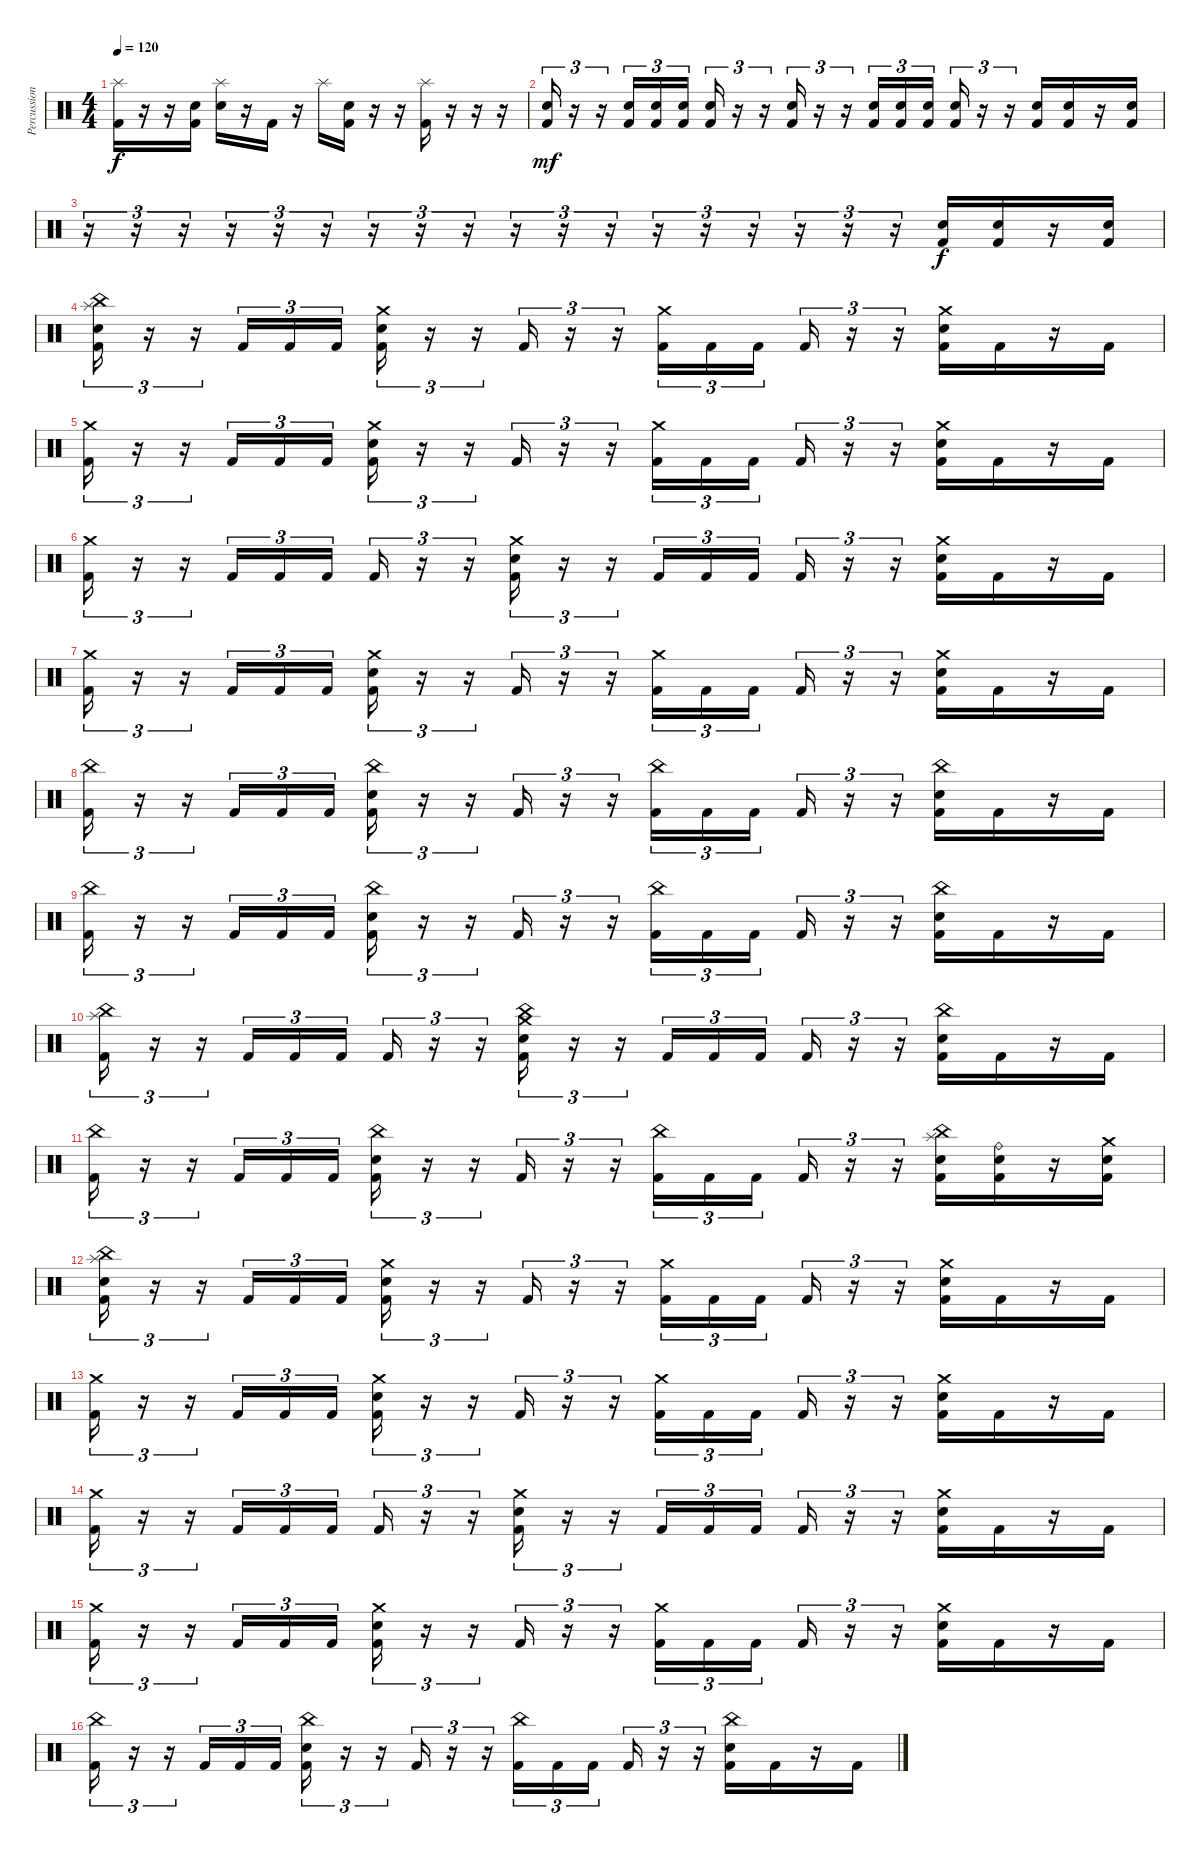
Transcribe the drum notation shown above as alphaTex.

\track ("Percussion" "Percussion") {instrument percussion}
\staff {score}
\articulation defaults
\ts (4 4)
\tempo 120
\clef neutral
\ks c
("Splash (hit)" "Kick (hit) 2").16{dy f} r.16 r.16 ("Electric Snare (hit)" "Kick (hit) 2").16 ("Splash (hit)" "Electric Snare (hit)").16 r.16 "Kick (hit) 2".16 r.16 "Splash (hit)".16 ("Electric Snare (hit)" "Kick (hit) 2").16 r.16 r.16 ("Splash (hit)" "Kick (hit) 2").16 r.16 r.16 r.16 |
("Snare (hit) 2" "Kick (hit) 2").16{tu (3 2) dy mf} r.16{tu (3 2)} r.16{tu (3 2)} ("Snare (hit) 2" "Kick (hit) 2").16{tu (3 2)} ("Snare (hit) 2" "Kick (hit) 2").16{tu (3 2)} ("Snare (hit) 2" "Kick (hit) 2").16{tu (3 2)} ("Snare (hit) 2" "Kick (hit) 2").16{tu (3 2)} r.16{tu (3 2)} r.16{tu (3 2)} ("Snare (hit) 2" "Kick (hit) 2").16{tu (3 2)} r.16{tu (3 2)} r.16{tu (3 2)} ("Snare (hit) 2" "Kick (hit) 2").16{tu (3 2)} ("Snare (hit) 2" "Kick (hit) 2").16{tu (3 2)} ("Snare (hit) 2" "Kick (hit) 2").16{tu (3 2)} ("Snare (hit) 2" "Kick (hit) 2").16{tu (3 2)} r.16{tu (3 2)} r.16{tu (3 2)} ("Snare (hit) 2" "Kick (hit) 2").16 ("Snare (hit) 2" "Kick (hit) 2").16 r.16 ("Snare (hit) 2" "Kick (hit) 2").16 |
r.16{tu (3 2)} r.16{tu (3 2)} r.16{tu (3 2)} r.16{tu (3 2)} r.16{tu (3 2)} r.16{tu (3 2)} r.16{tu (3 2)} r.16{tu (3 2)} r.16{tu (3 2)} r.16{tu (3 2)} r.16{tu (3 2)} r.16{tu (3 2)} r.16{tu (3 2)} r.16{tu (3 2)} r.16{tu (3 2)} r.16{tu (3 2)} r.16{tu (3 2)} r.16{tu (3 2)} ("Snare (hit) 2" "Kick (hit) 2").16{dy f} ("Snare (hit) 2" "Kick (hit) 2").16 r.16 ("Snare (hit) 2" "Kick (hit) 2").16 |
("China (hit)" "Splash (hit)" "Snare (hit) 2" "Kick (hit) 2").16{tu (3 2)} r.16{tu (3 2)} r.16{tu (3 2)} "Kick (hit) 2".16{tu (3 2)} "Kick (hit) 2".16{tu (3 2)} "Kick (hit) 2".16{tu (3 2)} ("Crash medium (hit)" "Electric Snare (hit)" "Kick (hit) 2").16{tu (3 2)} r.16{tu (3 2)} r.16{tu (3 2)} "Kick (hit) 2".16{tu (3 2)} r.16{tu (3 2)} r.16{tu (3 2)} ("Crash medium (hit)" "Kick (hit) 2").16{tu (3 2)} "Kick (hit) 2".16{tu (3 2)} "Kick (hit) 2".16{tu (3 2)} "Kick (hit) 2".16{tu (3 2)} r.16{tu (3 2)} r.16{tu (3 2)} ("Crash medium (hit)" "Electric Snare (hit)" "Kick (hit) 2").16 "Kick (hit) 2".16 r.16 "Kick (hit) 2".16 |
("Crash medium (hit)" "Kick (hit) 2").16{tu (3 2)} r.16{tu (3 2)} r.16{tu (3 2)} "Kick (hit) 2".16{tu (3 2)} "Kick (hit) 2".16{tu (3 2)} "Kick (hit) 2".16{tu (3 2)} ("Crash medium (hit)" "Electric Snare (hit)" "Kick (hit) 2").16{tu (3 2)} r.16{tu (3 2)} r.16{tu (3 2)} "Kick (hit) 2".16{tu (3 2)} r.16{tu (3 2)} r.16{tu (3 2)} ("Crash medium (hit)" "Kick (hit) 2").16{tu (3 2)} "Kick (hit) 2".16{tu (3 2)} "Kick (hit) 2".16{tu (3 2)} "Kick (hit) 2".16{tu (3 2)} r.16{tu (3 2)} r.16{tu (3 2)} ("Crash medium (hit)" "Electric Snare (hit)" "Kick (hit) 2").16 "Kick (hit) 2".16 r.16 "Kick (hit) 2".16 |
("Crash medium (hit)" "Kick (hit) 2").16{tu (3 2)} r.16{tu (3 2)} r.16{tu (3 2)} "Kick (hit) 2".16{tu (3 2)} "Kick (hit) 2".16{tu (3 2)} "Kick (hit) 2".16{tu (3 2)} "Kick (hit) 2".16{tu (3 2)} r.16{tu (3 2)} r.16{tu (3 2)} ("Crash medium (hit)" "Electric Snare (hit)" "Kick (hit) 2").16{tu (3 2)} r.16{tu (3 2)} r.16{tu (3 2)} "Kick (hit) 2".16{tu (3 2)} "Kick (hit) 2".16{tu (3 2)} "Kick (hit) 2".16{tu (3 2)} "Kick (hit) 2".16{tu (3 2)} r.16{tu (3 2)} r.16{tu (3 2)} ("Crash medium (hit)" "Electric Snare (hit)" "Kick (hit) 2").16 "Kick (hit) 2".16 r.16 "Kick (hit) 2".16 |
("Crash medium (hit)" "Kick (hit) 2").16{tu (3 2)} r.16{tu (3 2)} r.16{tu (3 2)} "Kick (hit) 2".16{tu (3 2)} "Kick (hit) 2".16{tu (3 2)} "Kick (hit) 2".16{tu (3 2)} ("Crash medium (hit)" "Electric Snare (hit)" "Kick (hit) 2").16{tu (3 2)} r.16{tu (3 2)} r.16{tu (3 2)} "Kick (hit) 2".16{tu (3 2)} r.16{tu (3 2)} r.16{tu (3 2)} ("Crash medium (hit)" "Kick (hit) 2").16{tu (3 2)} "Kick (hit) 2".16{tu (3 2)} "Kick (hit) 2".16{tu (3 2)} "Kick (hit) 2".16{tu (3 2)} r.16{tu (3 2)} r.16{tu (3 2)} ("Crash medium (hit)" "Electric Snare (hit)" "Kick (hit) 2").16 "Kick (hit) 2".16 r.16 "Kick (hit) 2".16 |
("China (hit)" "Kick (hit) 2").16{tu (3 2)} r.16{tu (3 2)} r.16{tu (3 2)} "Kick (hit) 2".16{tu (3 2)} "Kick (hit) 2".16{tu (3 2)} "Kick (hit) 2".16{tu (3 2)} ("China (hit)" "Electric Snare (hit)" "Kick (hit) 2").16{tu (3 2)} r.16{tu (3 2)} r.16{tu (3 2)} "Kick (hit) 2".16{tu (3 2)} r.16{tu (3 2)} r.16{tu (3 2)} ("China (hit)" "Kick (hit) 2").16{tu (3 2)} "Kick (hit) 2".16{tu (3 2)} "Kick (hit) 2".16{tu (3 2)} "Kick (hit) 2".16{tu (3 2)} r.16{tu (3 2)} r.16{tu (3 2)} ("China (hit)" "Electric Snare (hit)" "Kick (hit) 2").16 "Kick (hit) 2".16 r.16 "Kick (hit) 2".16 |
("China (hit)" "Kick (hit) 2").16{tu (3 2)} r.16{tu (3 2)} r.16{tu (3 2)} "Kick (hit) 2".16{tu (3 2)} "Kick (hit) 2".16{tu (3 2)} "Kick (hit) 2".16{tu (3 2)} ("China (hit)" "Electric Snare (hit)" "Kick (hit) 2").16{tu (3 2)} r.16{tu (3 2)} r.16{tu (3 2)} "Kick (hit) 2".16{tu (3 2)} r.16{tu (3 2)} r.16{tu (3 2)} ("China (hit)" "Kick (hit) 2").16{tu (3 2)} "Kick (hit) 2".16{tu (3 2)} "Kick (hit) 2".16{tu (3 2)} "Kick (hit) 2".16{tu (3 2)} r.16{tu (3 2)} r.16{tu (3 2)} ("China (hit)" "Electric Snare (hit)" "Kick (hit) 2").16 "Kick (hit) 2".16 r.16 "Kick (hit) 2".16 |
("China (hit)" "Splash (hit)" "Kick (hit) 2").16{tu (3 2)} r.16{tu (3 2)} r.16{tu (3 2)} "Kick (hit) 2".16{tu (3 2)} "Kick (hit) 2".16{tu (3 2)} "Kick (hit) 2".16{tu (3 2)} "Kick (hit) 2".16{tu (3 2)} r.16{tu (3 2)} r.16{tu (3 2)} ("China (hit)" "Crash medium (hit)" "Electric Snare (hit)" "Kick (hit) 2").16{tu (3 2)} r.16{tu (3 2)} r.16{tu (3 2)} "Kick (hit) 2".16{tu (3 2)} "Kick (hit) 2".16{tu (3 2)} "Kick (hit) 2".16{tu (3 2)} "Kick (hit) 2".16{tu (3 2)} r.16{tu (3 2)} r.16{tu (3 2)} ("China (hit)" "Electric Snare (hit)" "Kick (hit) 2").16 "Kick (hit) 2".16 r.16 "Kick (hit) 2".16 |
("China (hit)" "Kick (hit) 2").16{tu (3 2)} r.16{tu (3 2)} r.16{tu (3 2)} "Kick (hit) 2".16{tu (3 2)} "Kick (hit) 2".16{tu (3 2)} "Kick (hit) 2".16{tu (3 2)} ("China (hit)" "Electric Snare (hit)" "Kick (hit) 2").16{tu (3 2)} r.16{tu (3 2)} r.16{tu (3 2)} "Kick (hit) 2".16{tu (3 2)} r.16{tu (3 2)} r.16{tu (3 2)} ("China (hit)" "Kick (hit) 2").16{tu (3 2)} "Kick (hit) 2".16{tu (3 2)} "Kick (hit) 2".16{tu (3 2)} "Kick (hit) 2".16{tu (3 2)} r.16{tu (3 2)} r.16{tu (3 2)} ("China (hit)" "Splash (hit)" "Electric Snare (hit)" "Kick (hit) 2").16 ("Ride (bell)" "Electric Snare (hit)" "Kick (hit) 2").16 r.16 ("Crash medium (hit)" "Electric Snare (hit)" "Kick (hit) 2").16 |
("China (hit)" "Splash (hit)" "Snare (hit) 2" "Kick (hit) 2").16{tu (3 2)} r.16{tu (3 2)} r.16{tu (3 2)} "Kick (hit) 2".16{tu (3 2)} "Kick (hit) 2".16{tu (3 2)} "Kick (hit) 2".16{tu (3 2)} ("Crash medium (hit)" "Electric Snare (hit)" "Kick (hit) 2").16{tu (3 2)} r.16{tu (3 2)} r.16{tu (3 2)} "Kick (hit) 2".16{tu (3 2)} r.16{tu (3 2)} r.16{tu (3 2)} ("Crash medium (hit)" "Kick (hit) 2").16{tu (3 2)} "Kick (hit) 2".16{tu (3 2)} "Kick (hit) 2".16{tu (3 2)} "Kick (hit) 2".16{tu (3 2)} r.16{tu (3 2)} r.16{tu (3 2)} ("Crash medium (hit)" "Electric Snare (hit)" "Kick (hit) 2").16 "Kick (hit) 2".16 r.16 "Kick (hit) 2".16 |
("Crash medium (hit)" "Kick (hit) 2").16{tu (3 2)} r.16{tu (3 2)} r.16{tu (3 2)} "Kick (hit) 2".16{tu (3 2)} "Kick (hit) 2".16{tu (3 2)} "Kick (hit) 2".16{tu (3 2)} ("Crash medium (hit)" "Electric Snare (hit)" "Kick (hit) 2").16{tu (3 2)} r.16{tu (3 2)} r.16{tu (3 2)} "Kick (hit) 2".16{tu (3 2)} r.16{tu (3 2)} r.16{tu (3 2)} ("Crash medium (hit)" "Kick (hit) 2").16{tu (3 2)} "Kick (hit) 2".16{tu (3 2)} "Kick (hit) 2".16{tu (3 2)} "Kick (hit) 2".16{tu (3 2)} r.16{tu (3 2)} r.16{tu (3 2)} ("Crash medium (hit)" "Electric Snare (hit)" "Kick (hit) 2").16 "Kick (hit) 2".16 r.16 "Kick (hit) 2".16 |
("Crash medium (hit)" "Kick (hit) 2").16{tu (3 2)} r.16{tu (3 2)} r.16{tu (3 2)} "Kick (hit) 2".16{tu (3 2)} "Kick (hit) 2".16{tu (3 2)} "Kick (hit) 2".16{tu (3 2)} "Kick (hit) 2".16{tu (3 2)} r.16{tu (3 2)} r.16{tu (3 2)} ("Crash medium (hit)" "Electric Snare (hit)" "Kick (hit) 2").16{tu (3 2)} r.16{tu (3 2)} r.16{tu (3 2)} "Kick (hit) 2".16{tu (3 2)} "Kick (hit) 2".16{tu (3 2)} "Kick (hit) 2".16{tu (3 2)} "Kick (hit) 2".16{tu (3 2)} r.16{tu (3 2)} r.16{tu (3 2)} ("Crash medium (hit)" "Electric Snare (hit)" "Kick (hit) 2").16 "Kick (hit) 2".16 r.16 "Kick (hit) 2".16 |
("Crash medium (hit)" "Kick (hit) 2").16{tu (3 2)} r.16{tu (3 2)} r.16{tu (3 2)} "Kick (hit) 2".16{tu (3 2)} "Kick (hit) 2".16{tu (3 2)} "Kick (hit) 2".16{tu (3 2)} ("Crash medium (hit)" "Electric Snare (hit)" "Kick (hit) 2").16{tu (3 2)} r.16{tu (3 2)} r.16{tu (3 2)} "Kick (hit) 2".16{tu (3 2)} r.16{tu (3 2)} r.16{tu (3 2)} ("Crash medium (hit)" "Kick (hit) 2").16{tu (3 2)} "Kick (hit) 2".16{tu (3 2)} "Kick (hit) 2".16{tu (3 2)} "Kick (hit) 2".16{tu (3 2)} r.16{tu (3 2)} r.16{tu (3 2)} ("Crash medium (hit)" "Electric Snare (hit)" "Kick (hit) 2").16 "Kick (hit) 2".16 r.16 "Kick (hit) 2".16 |
("China (hit)" "Kick (hit) 2").16{tu (3 2)} r.16{tu (3 2)} r.16{tu (3 2)} "Kick (hit) 2".16{tu (3 2)} "Kick (hit) 2".16{tu (3 2)} "Kick (hit) 2".16{tu (3 2)} ("China (hit)" "Electric Snare (hit)" "Kick (hit) 2").16{tu (3 2)} r.16{tu (3 2)} r.16{tu (3 2)} "Kick (hit) 2".16{tu (3 2)} r.16{tu (3 2)} r.16{tu (3 2)} ("China (hit)" "Kick (hit) 2").16{tu (3 2)} "Kick (hit) 2".16{tu (3 2)} "Kick (hit) 2".16{tu (3 2)} "Kick (hit) 2".16{tu (3 2)} r.16{tu (3 2)} r.16{tu (3 2)} ("China (hit)" "Electric Snare (hit)" "Kick (hit) 2").16 "Kick (hit) 2".16 r.16 "Kick (hit) 2".16
